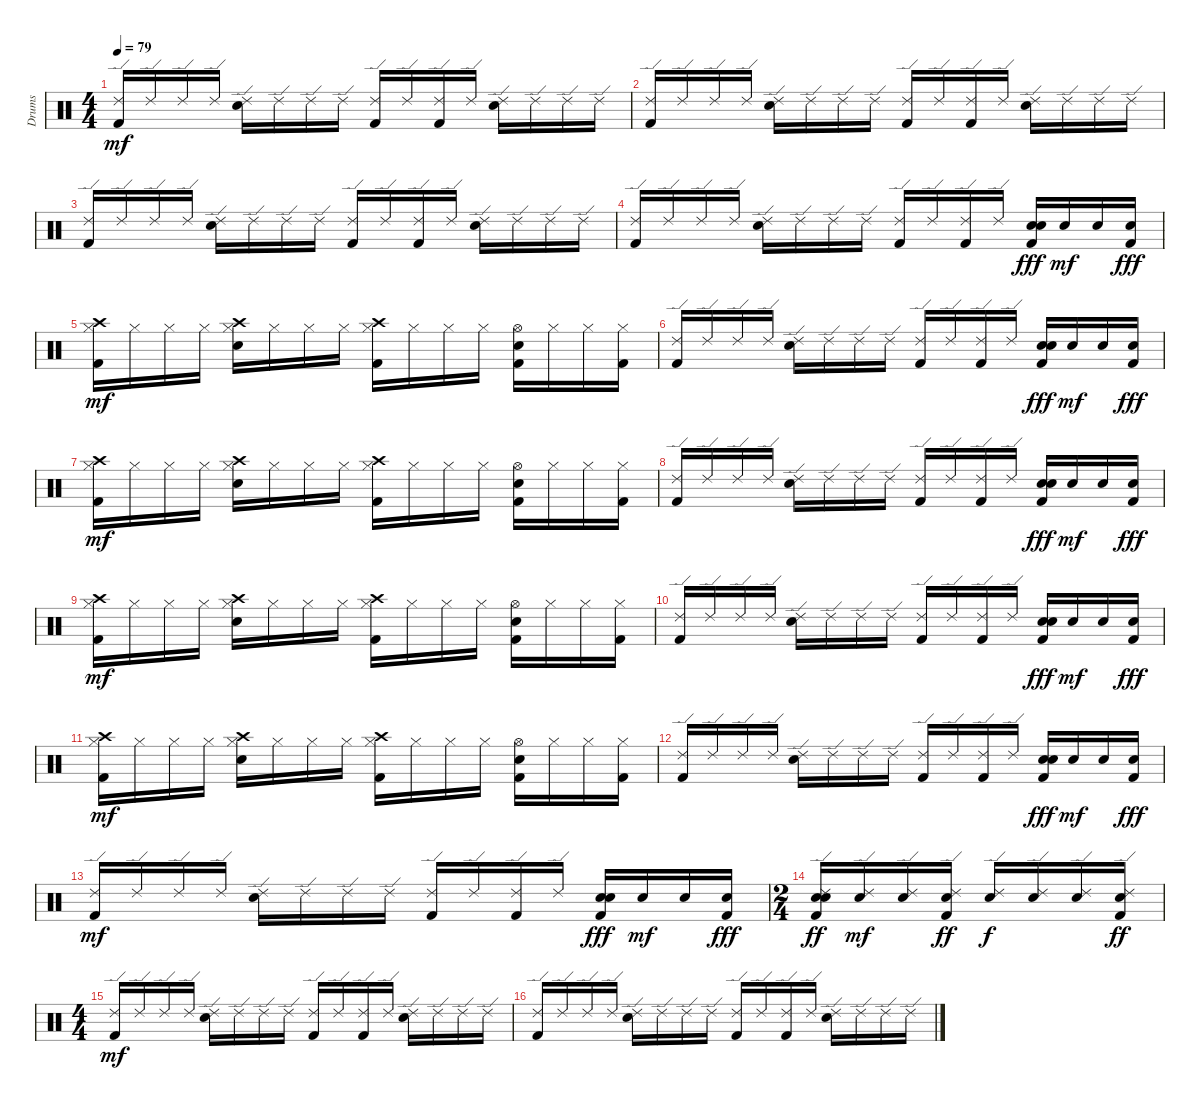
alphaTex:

\track ("Drums" "Drums") {instrument percussion}
\staff {score}
\articulation defaults
\ts (4 4)
\tempo 79
\clef neutral
\ks c
("Kick (hit) 2" "Ride (edge) 2").16{dy mf} "Ride (edge) 2".16 "Ride (edge) 2".16 "Ride (edge) 2".16 ("Electric Snare (hit)" "Ride (edge) 2").16 "Ride (edge) 2".16 "Ride (edge) 2".16 "Ride (edge) 2".16 ("Kick (hit) 2" "Ride (edge) 2").16 "Ride (edge) 2".16 ("Kick (hit) 2" "Ride (edge) 2").16 "Ride (edge) 2".16 ("Electric Snare (hit)" "Ride (edge) 2").16 "Ride (edge) 2".16 "Ride (edge) 2".16 "Ride (edge) 2".16 |
("Kick (hit) 2" "Ride (edge) 2").16 "Ride (edge) 2".16 "Ride (edge) 2".16 "Ride (edge) 2".16 ("Electric Snare (hit)" "Ride (edge) 2").16 "Ride (edge) 2".16 "Ride (edge) 2".16 "Ride (edge) 2".16 ("Kick (hit) 2" "Ride (edge) 2").16 "Ride (edge) 2".16 ("Kick (hit) 2" "Ride (edge) 2").16 "Ride (edge) 2".16 ("Electric Snare (hit)" "Ride (edge) 2").16 "Ride (edge) 2".16 "Ride (edge) 2".16 "Ride (edge) 2".16 |
("Kick (hit) 2" "Ride (edge) 2").16 "Ride (edge) 2".16 "Ride (edge) 2".16 "Ride (edge) 2".16 ("Electric Snare (hit)" "Ride (edge) 2").16 "Ride (edge) 2".16 "Ride (edge) 2".16 "Ride (edge) 2".16 ("Kick (hit) 2" "Ride (edge) 2").16 "Ride (edge) 2".16 ("Kick (hit) 2" "Ride (edge) 2").16 "Ride (edge) 2".16 ("Electric Snare (hit)" "Ride (edge) 2").16 "Ride (edge) 2".16 "Ride (edge) 2".16 "Ride (edge) 2".16 |
("Kick (hit) 2" "Ride (edge) 2").16 "Ride (edge) 2".16 "Ride (edge) 2".16 "Ride (edge) 2".16 ("Electric Snare (hit)" "Ride (edge) 2").16 "Ride (edge) 2".16 "Ride (edge) 2".16 "Ride (edge) 2".16 ("Kick (hit) 2" "Ride (edge) 2").16 "Ride (edge) 2".16 ("Kick (hit) 2" "Ride (edge) 2").16 "Ride (edge) 2".16 ("Electric Snare (hit)" "Electric Snare (hit)" "Kick (hit) 2").16{dy fff} "Electric Snare (hit)".16{dy mf} "Electric Snare (hit)".16 ("Electric Snare (hit)" "Kick (hit) 2").16{dy fff} |
("Crash high (hit)" "Kick (hit) 2" "Hi-Hat (closed)").16{dy mf} "Hi-Hat (closed)".16 "Hi-Hat (closed)".16 "Hi-Hat (closed)".16 ("Crash high (hit)" "Electric Snare (hit)" "Hi-Hat (closed)").16 "Hi-Hat (closed)".16 "Hi-Hat (closed)".16 "Hi-Hat (closed)".16 ("Crash high (hit)" "Kick (hit) 2" "Hi-Hat (closed)").16 "Hi-Hat (closed)".16 "Hi-Hat (closed)".16 "Hi-Hat (closed)".16 ("Kick (hit) 2" "Electric Snare (hit)" "Hi-Hat (open)").16 "Hi-Hat (closed)".16 "Hi-Hat (closed)".16 ("Kick (hit) 2" "Hi-Hat (closed)").16 |
("Kick (hit) 2" "Ride (edge) 2").16 "Ride (edge) 2".16 "Ride (edge) 2".16 "Ride (edge) 2".16 ("Electric Snare (hit)" "Ride (edge) 2").16 "Ride (edge) 2".16 "Ride (edge) 2".16 "Ride (edge) 2".16 ("Kick (hit) 2" "Ride (edge) 2").16 "Ride (edge) 2".16 ("Kick (hit) 2" "Ride (edge) 2").16 "Ride (edge) 2".16 ("Electric Snare (hit)" "Electric Snare (hit)" "Kick (hit) 2").16{dy fff} "Electric Snare (hit)".16{dy mf} "Electric Snare (hit)".16 ("Electric Snare (hit)" "Kick (hit) 2").16{dy fff} |
("Crash high (hit)" "Kick (hit) 2" "Hi-Hat (closed)").16{dy mf} "Hi-Hat (closed)".16 "Hi-Hat (closed)".16 "Hi-Hat (closed)".16 ("Crash high (hit)" "Electric Snare (hit)" "Hi-Hat (closed)").16 "Hi-Hat (closed)".16 "Hi-Hat (closed)".16 "Hi-Hat (closed)".16 ("Crash high (hit)" "Kick (hit) 2" "Hi-Hat (closed)").16 "Hi-Hat (closed)".16 "Hi-Hat (closed)".16 "Hi-Hat (closed)".16 ("Kick (hit) 2" "Electric Snare (hit)" "Hi-Hat (open)").16 "Hi-Hat (closed)".16 "Hi-Hat (closed)".16 ("Kick (hit) 2" "Hi-Hat (closed)").16 |
("Kick (hit) 2" "Ride (edge) 2").16 "Ride (edge) 2".16 "Ride (edge) 2".16 "Ride (edge) 2".16 ("Electric Snare (hit)" "Ride (edge) 2").16 "Ride (edge) 2".16 "Ride (edge) 2".16 "Ride (edge) 2".16 ("Kick (hit) 2" "Ride (edge) 2").16 "Ride (edge) 2".16 ("Kick (hit) 2" "Ride (edge) 2").16 "Ride (edge) 2".16 ("Electric Snare (hit)" "Electric Snare (hit)" "Kick (hit) 2").16{dy fff} "Electric Snare (hit)".16{dy mf} "Electric Snare (hit)".16 ("Electric Snare (hit)" "Kick (hit) 2").16{dy fff} |
("Crash high (hit)" "Kick (hit) 2" "Hi-Hat (closed)").16{dy mf} "Hi-Hat (closed)".16 "Hi-Hat (closed)".16 "Hi-Hat (closed)".16 ("Crash high (hit)" "Electric Snare (hit)" "Hi-Hat (closed)").16 "Hi-Hat (closed)".16 "Hi-Hat (closed)".16 "Hi-Hat (closed)".16 ("Crash high (hit)" "Kick (hit) 2" "Hi-Hat (closed)").16 "Hi-Hat (closed)".16 "Hi-Hat (closed)".16 "Hi-Hat (closed)".16 ("Kick (hit) 2" "Electric Snare (hit)" "Hi-Hat (open)").16 "Hi-Hat (closed)".16 "Hi-Hat (closed)".16 ("Kick (hit) 2" "Hi-Hat (closed)").16 |
("Kick (hit) 2" "Ride (edge) 2").16 "Ride (edge) 2".16 "Ride (edge) 2".16 "Ride (edge) 2".16 ("Electric Snare (hit)" "Ride (edge) 2").16 "Ride (edge) 2".16 "Ride (edge) 2".16 "Ride (edge) 2".16 ("Kick (hit) 2" "Ride (edge) 2").16 "Ride (edge) 2".16 ("Kick (hit) 2" "Ride (edge) 2").16 "Ride (edge) 2".16 ("Electric Snare (hit)" "Electric Snare (hit)" "Kick (hit) 2").16{dy fff} "Electric Snare (hit)".16{dy mf} "Electric Snare (hit)".16 ("Electric Snare (hit)" "Kick (hit) 2").16{dy fff} |
("Crash high (hit)" "Kick (hit) 2" "Hi-Hat (closed)").16{dy mf} "Hi-Hat (closed)".16 "Hi-Hat (closed)".16 "Hi-Hat (closed)".16 ("Crash high (hit)" "Electric Snare (hit)" "Hi-Hat (closed)").16 "Hi-Hat (closed)".16 "Hi-Hat (closed)".16 "Hi-Hat (closed)".16 ("Crash high (hit)" "Kick (hit) 2" "Hi-Hat (closed)").16 "Hi-Hat (closed)".16 "Hi-Hat (closed)".16 "Hi-Hat (closed)".16 ("Kick (hit) 2" "Electric Snare (hit)" "Hi-Hat (open)").16 "Hi-Hat (closed)".16 "Hi-Hat (closed)".16 ("Kick (hit) 2" "Hi-Hat (closed)").16 |
("Kick (hit) 2" "Ride (edge) 2").16 "Ride (edge) 2".16 "Ride (edge) 2".16 "Ride (edge) 2".16 ("Electric Snare (hit)" "Ride (edge) 2").16 "Ride (edge) 2".16 "Ride (edge) 2".16 "Ride (edge) 2".16 ("Kick (hit) 2" "Ride (edge) 2").16 "Ride (edge) 2".16 ("Kick (hit) 2" "Ride (edge) 2").16 "Ride (edge) 2".16 ("Electric Snare (hit)" "Electric Snare (hit)" "Kick (hit) 2").16{dy fff} "Electric Snare (hit)".16{dy mf} "Electric Snare (hit)".16 ("Electric Snare (hit)" "Kick (hit) 2").16{dy fff} |
("Kick (hit) 2" "Ride (edge) 2").16{dy mf} "Ride (edge) 2".16 "Ride (edge) 2".16 "Ride (edge) 2".16 ("Electric Snare (hit)" "Ride (edge) 2").16 "Ride (edge) 2".16 "Ride (edge) 2".16 "Ride (edge) 2".16 ("Kick (hit) 2" "Ride (edge) 2").16 "Ride (edge) 2".16 ("Kick (hit) 2" "Ride (edge) 2").16 "Ride (edge) 2".16 ("Electric Snare (hit)" "Electric Snare (hit)" "Kick (hit) 2").16{dy fff} "Electric Snare (hit)".16{dy mf} "Electric Snare (hit)".16 ("Electric Snare (hit)" "Kick (hit) 2").16{dy fff} |
\ts (2 4)
("Electric Snare (hit)" "Electric Snare (hit)" "Kick (hit) 2" "Ride (edge) 2").16{dy ff} ("Electric Snare (hit)" "Ride (edge) 2").16{dy mf} ("Electric Snare (hit)" "Ride (edge) 2").16 ("Electric Snare (hit)" "Kick (hit) 2" "Ride (edge) 2").16{dy ff} ("Electric Snare (hit)" "Ride (edge) 2").16{dy f} ("Electric Snare (hit)" "Ride (edge) 2").16 ("Electric Snare (hit)" "Ride (edge) 2").16 ("Electric Snare (hit)" "Kick (hit) 2" "Ride (edge) 2").16{dy ff} |
\ts (4 4)
("Kick (hit) 2" "Ride (edge) 2").16{dy mf} "Ride (edge) 2".16 "Ride (edge) 2".16 "Ride (edge) 2".16 ("Electric Snare (hit)" "Ride (edge) 2").16 "Ride (edge) 2".16 "Ride (edge) 2".16 "Ride (edge) 2".16 ("Kick (hit) 2" "Ride (edge) 2").16 "Ride (edge) 2".16 ("Kick (hit) 2" "Ride (edge) 2").16 "Ride (edge) 2".16 ("Electric Snare (hit)" "Ride (edge) 2").16 "Ride (edge) 2".16 "Ride (edge) 2".16 "Ride (edge) 2".16 |
("Kick (hit) 2" "Ride (edge) 2").16 "Ride (edge) 2".16 "Ride (edge) 2".16 "Ride (edge) 2".16 ("Electric Snare (hit)" "Ride (edge) 2").16 "Ride (edge) 2".16 "Ride (edge) 2".16 "Ride (edge) 2".16 ("Kick (hit) 2" "Ride (edge) 2").16 "Ride (edge) 2".16 ("Kick (hit) 2" "Ride (edge) 2").16 "Ride (edge) 2".16 ("Electric Snare (hit)" "Ride (edge) 2").16 "Ride (edge) 2".16 "Ride (edge) 2".16 "Ride (edge) 2".16
